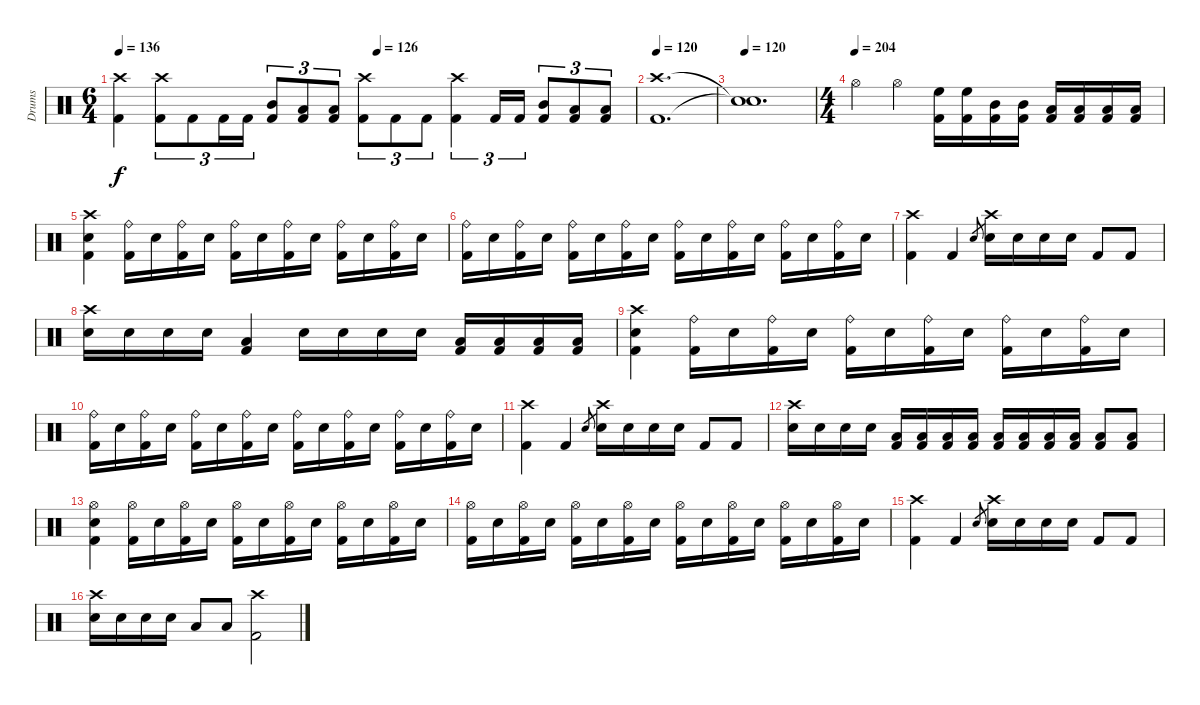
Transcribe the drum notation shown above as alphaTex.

\track ("Drums" "Drums") {instrument percussion}
\staff {score}
\articulation defaults
\ts (6 4)
\tempo 136
\tempo (126 0.5)
\clef neutral
\ks c
("Crash high (hit)" "Kick (hit) 2").4{dy f} ("Crash high (hit)" "Kick (hit) 2").8{tu (3 2)} "Kick (hit) 2".8{tu (3 2)} "Kick (hit) 2".16{tu (3 2)} "Kick (hit) 2".16{tu (3 2)} ("Mid Tom (hit)" "Kick (hit) 2").8{tu (3 2)} ("Low Tom (hit)" "Kick (hit) 2").8{tu (3 2)} ("Low Floor Tom (hit)" "Kick (hit) 2").8{tu (3 2)} ("Kick (hit) 2" "Crash high (hit)").8{tu (3 2)} "Kick (hit) 2".8{tu (3 2)} "Kick (hit) 2".8{tu (3 2)} ("Crash high (hit)" "Kick (hit) 2").4{tu (3 2)} "Kick (hit) 2".16{tu (3 2)} "Kick (hit) 2".16{tu (3 2)} ("Mid Tom (hit)" "Kick (hit) 2").8{tu (3 2)} ("Low Tom (hit)" "Kick (hit) 2").8{tu (3 2)} ("Low Floor Tom (hit)" "Kick (hit) 2").8{tu (3 2)} |
\tempo 120
("Crash high (hit)" "Kick (hit) 2").1{d} |
\tempo 120
("Snare (hit)"{t} "Snare (hit)"{t}).1{d} |
\ts (4 4)
\tempo (204)
"Hi-Hat (open)".4 "Hi-Hat (open)".4 ("High Floor Tom (hit)" "Kick (hit) 2").16 ("High Floor Tom (hit)" "Kick (hit) 2").16 ("Mid Tom (hit)" "Kick (hit) 2").16 ("Mid Tom (hit)" "Kick (hit) 2").16 ("Low Tom (hit)" "Kick (hit) 2").16 ("Low Tom (hit)" "Kick (hit) 2").16 ("Low Floor Tom (hit)" "Kick (hit) 2").16 ("Low Floor Tom (hit)" "Kick (hit) 2").16 |
("Crash high (hit)" "Snare (hit) 2" "Kick (hit) 2").4 ("Ride (bell)" "Kick (hit) 2").16 "Snare (hit) 2".16 ("Ride (bell)" "Kick (hit) 2").16 "Snare (hit) 2".16 ("Ride (bell)" "Kick (hit) 2").16 "Snare (hit) 2".16 ("Ride (bell)" "Kick (hit) 2").16 "Snare (hit) 2".16 ("Ride (bell)" "Kick (hit) 2").16 "Snare (hit) 2".16 ("Ride (bell)" "Kick (hit) 2").16 "Snare (hit) 2".16 |
("Ride (bell)" "Kick (hit) 2").16 "Snare (hit) 2".16 ("Ride (bell)" "Kick (hit) 2").16 "Snare (hit) 2".16 ("Ride (bell)" "Kick (hit) 2").16 "Snare (hit) 2".16 ("Ride (bell)" "Kick (hit) 2").16 "Snare (hit) 2".16 ("Ride (bell)" "Kick (hit) 2").16 "Snare (hit) 2".16 ("Ride (bell)" "Kick (hit) 2").16 "Snare (hit) 2".16 ("Ride (bell)" "Kick (hit) 2").16 "Snare (hit) 2".16 ("Ride (bell)" "Kick (hit) 2").16 "Snare (hit) 2".16 |
("Crash high (hit)" "Kick (hit) 2").4 "Kick (hit) 2".4 "Snare (hit) 2".8{gr} ("Crash high (hit)" "Snare (hit) 2").16 "Snare (hit) 2".16 "Snare (hit) 2".16 "Snare (hit) 2".16 "Kick (hit) 2".8 "Kick (hit) 2".8 |
("Crash high (hit)" "Snare (hit) 2").16 "Snare (hit) 2".16 "Snare (hit) 2".16 "Snare (hit) 2".16 ("Low Floor Tom (hit)" "Kick (hit) 2").4 "Snare (hit) 2".16 "Snare (hit) 2".16 "Snare (hit) 2".16 "Snare (hit) 2".16 ("Low Floor Tom (hit)" "Kick (hit) 2").16 ("Low Floor Tom (hit)" "Kick (hit) 2").16 ("Low Floor Tom (hit)" "Kick (hit) 2").16 ("Low Floor Tom (hit)" "Kick (hit) 2").16 |
("Crash high (hit)" "Snare (hit) 2" "Kick (hit) 2").4 ("Ride (bell)" "Kick (hit) 2").16 "Snare (hit) 2".16 ("Ride (bell)" "Kick (hit) 2").16 "Snare (hit) 2".16 ("Ride (bell)" "Kick (hit) 2").16 "Snare (hit) 2".16 ("Ride (bell)" "Kick (hit) 2").16 "Snare (hit) 2".16 ("Ride (bell)" "Kick (hit) 2").16 "Snare (hit) 2".16 ("Ride (bell)" "Kick (hit) 2").16 "Snare (hit) 2".16 |
("Ride (bell)" "Kick (hit) 2").16 "Snare (hit) 2".16 ("Ride (bell)" "Kick (hit) 2").16 "Snare (hit) 2".16 ("Ride (bell)" "Kick (hit) 2").16 "Snare (hit) 2".16 ("Ride (bell)" "Kick (hit) 2").16 "Snare (hit) 2".16 ("Ride (bell)" "Kick (hit) 2").16 "Snare (hit) 2".16 ("Ride (bell)" "Kick (hit) 2").16 "Snare (hit) 2".16 ("Ride (bell)" "Kick (hit) 2").16 "Snare (hit) 2".16 ("Ride (bell)" "Kick (hit) 2").16 "Snare (hit) 2".16 |
("Crash high (hit)" "Kick (hit) 2").4 "Kick (hit) 2".4 "Snare (hit) 2".8{gr} ("Crash high (hit)" "Snare (hit) 2").16 "Snare (hit) 2".16 "Snare (hit) 2".16 "Snare (hit) 2".16 "Kick (hit) 2".8 "Kick (hit) 2".8 |
("Crash high (hit)" "Snare (hit) 2").16 "Snare (hit) 2".16 "Snare (hit) 2".16 "Snare (hit) 2".16 ("Low Tom (hit)" "Kick (hit) 2").16 ("Low Floor Tom (hit)" "Kick (hit) 2").16 ("Low Floor Tom (hit)" "Kick (hit) 2").16 ("Low Floor Tom (hit)" "Kick (hit) 2").16 ("Low Tom (hit)" "Kick (hit) 2").16 ("Low Floor Tom (hit)" "Kick (hit) 2").16 ("Low Floor Tom (hit)" "Kick (hit) 2").16 ("Low Floor Tom (hit)" "Kick (hit) 2").16 ("Low Floor Tom (hit)" "Kick (hit) 2").8 ("Low Floor Tom (hit)" "Kick (hit) 2").8 |
("Hi-Hat (open)" "Snare (hit) 2" "Kick (hit) 2").4 ("Hi-Hat (open)" "Kick (hit) 2").16 "Snare (hit) 2".16 ("Hi-Hat (open)" "Kick (hit) 2").16 "Snare (hit) 2".16 ("Hi-Hat (open)" "Kick (hit) 2").16 "Snare (hit) 2".16 ("Hi-Hat (open)" "Kick (hit) 2").16 "Snare (hit) 2".16 ("Hi-Hat (open)" "Kick (hit) 2").16 "Snare (hit) 2".16 ("Hi-Hat (open)" "Kick (hit) 2").16 "Snare (hit) 2".16 |
("Hi-Hat (open)" "Kick (hit) 2").16 "Snare (hit) 2".16 ("Hi-Hat (open)" "Kick (hit) 2").16 "Snare (hit) 2".16 ("Hi-Hat (open)" "Kick (hit) 2").16 "Snare (hit) 2".16 ("Hi-Hat (open)" "Kick (hit) 2").16 "Snare (hit) 2".16 ("Hi-Hat (open)" "Kick (hit) 2").16 "Snare (hit) 2".16 ("Hi-Hat (open)" "Kick (hit) 2").16 "Snare (hit) 2".16 ("Hi-Hat (open)" "Kick (hit) 2").16 "Snare (hit) 2".16 ("Hi-Hat (open)" "Kick (hit) 2").16 "Snare (hit) 2".16 |
("Crash high (hit)" "Kick (hit) 2").4 "Kick (hit) 2".4 "Snare (hit) 2".8{gr} ("Crash high (hit)" "Snare (hit) 2").16 "Snare (hit) 2".16 "Snare (hit) 2".16 "Snare (hit) 2".16 "Kick (hit) 2".8 "Kick (hit) 2".8 |
("Crash high (hit)" "Snare (hit) 2").16 "Snare (hit) 2".16 "Snare (hit) 2".16 "Snare (hit) 2".16 "Low Tom (hit)".8 "Low Floor Tom (hit)".8 ("Crash high (hit)" "Kick (hit) 2").2
